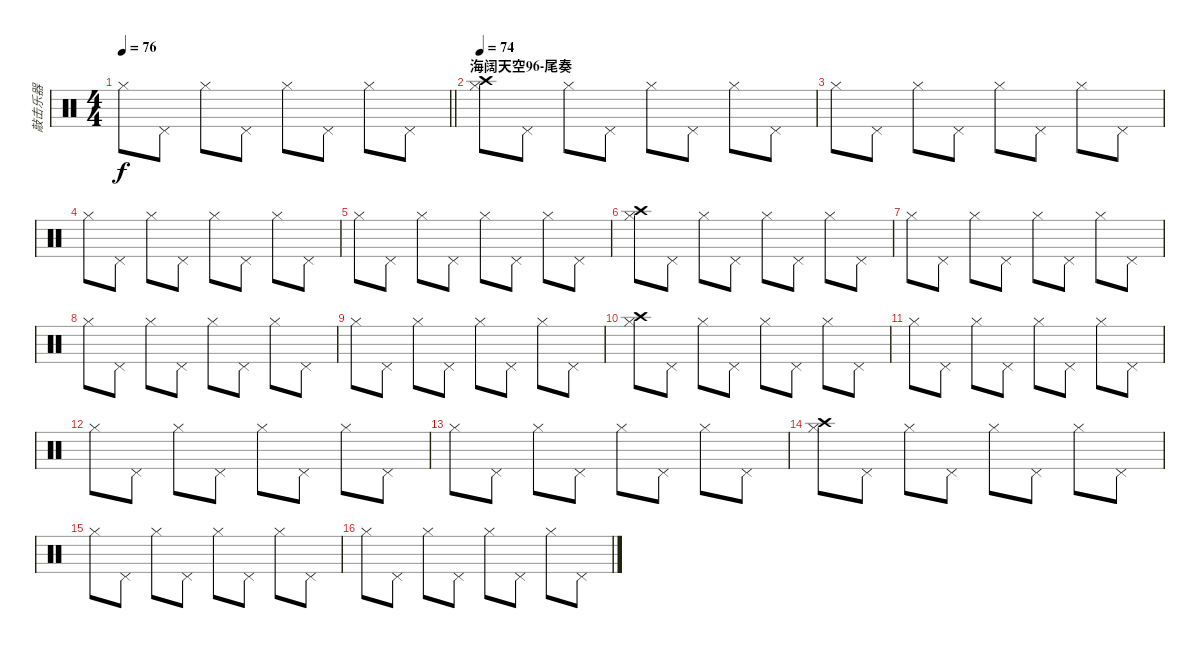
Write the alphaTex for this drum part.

\track ("敲击乐器" "敲击乐器") {instrument percussion}
\staff {score}
\articulation defaults
\ts (4 4)
\tempo 76
\clef neutral
\barLineRight lightlight
\ks c "Hi-Hat (closed)".8{dy f} "Pedal Hi-Hat (hit)".8 "Hi-Hat (closed)".8 "Pedal Hi-Hat (hit)".8 "Hi-Hat (closed)".8 "Pedal Hi-Hat (hit)".8 "Hi-Hat (closed)".8 "Pedal Hi-Hat (hit)".8
|
\section ("" "海阔天空96-尾奏")
\tempo 74
("Hi-Hat (closed)" "Crash high (hit)").8 "Pedal Hi-Hat (hit)".8 "Hi-Hat (closed)".8 "Pedal Hi-Hat (hit)".8 "Hi-Hat (closed)".8 "Pedal Hi-Hat (hit)".8 "Hi-Hat (closed)".8 "Pedal Hi-Hat (hit)".8 |
"Hi-Hat (closed)".8 "Pedal Hi-Hat (hit)".8 "Hi-Hat (closed)".8 "Pedal Hi-Hat (hit)".8 "Hi-Hat (closed)".8 "Pedal Hi-Hat (hit)".8 "Hi-Hat (closed)".8 "Pedal Hi-Hat (hit)".8 |
"Hi-Hat (closed)".8 "Pedal Hi-Hat (hit)".8 "Hi-Hat (closed)".8 "Pedal Hi-Hat (hit)".8 "Hi-Hat (closed)".8 "Pedal Hi-Hat (hit)".8 "Hi-Hat (closed)".8 "Pedal Hi-Hat (hit)".8 |
"Hi-Hat (closed)".8 "Pedal Hi-Hat (hit)".8 "Hi-Hat (closed)".8 "Pedal Hi-Hat (hit)".8 "Hi-Hat (closed)".8 "Pedal Hi-Hat (hit)".8 "Hi-Hat (closed)".8 "Pedal Hi-Hat (hit)".8 |
("Hi-Hat (closed)" "Crash high (hit)").8 "Pedal Hi-Hat (hit)".8 "Hi-Hat (closed)".8 "Pedal Hi-Hat (hit)".8 "Hi-Hat (closed)".8 "Pedal Hi-Hat (hit)".8 "Hi-Hat (closed)".8 "Pedal Hi-Hat (hit)".8 |
"Hi-Hat (closed)".8 "Pedal Hi-Hat (hit)".8 "Hi-Hat (closed)".8 "Pedal Hi-Hat (hit)".8 "Hi-Hat (closed)".8 "Pedal Hi-Hat (hit)".8 "Hi-Hat (closed)".8 "Pedal Hi-Hat (hit)".8 |
"Hi-Hat (closed)".8 "Pedal Hi-Hat (hit)".8 "Hi-Hat (closed)".8 "Pedal Hi-Hat (hit)".8 "Hi-Hat (closed)".8 "Pedal Hi-Hat (hit)".8 "Hi-Hat (closed)".8 "Pedal Hi-Hat (hit)".8 |
"Hi-Hat (closed)".8 "Pedal Hi-Hat (hit)".8 "Hi-Hat (closed)".8 "Pedal Hi-Hat (hit)".8 "Hi-Hat (closed)".8 "Pedal Hi-Hat (hit)".8 "Hi-Hat (closed)".8 "Pedal Hi-Hat (hit)".8 |
("Hi-Hat (closed)" "Crash high (hit)").8 "Pedal Hi-Hat (hit)".8 "Hi-Hat (closed)".8 "Pedal Hi-Hat (hit)".8 "Hi-Hat (closed)".8 "Pedal Hi-Hat (hit)".8 "Hi-Hat (closed)".8 "Pedal Hi-Hat (hit)".8 |
"Hi-Hat (closed)".8 "Pedal Hi-Hat (hit)".8 "Hi-Hat (closed)".8 "Pedal Hi-Hat (hit)".8 "Hi-Hat (closed)".8 "Pedal Hi-Hat (hit)".8 "Hi-Hat (closed)".8 "Pedal Hi-Hat (hit)".8 |
"Hi-Hat (closed)".8 "Pedal Hi-Hat (hit)".8 "Hi-Hat (closed)".8 "Pedal Hi-Hat (hit)".8 "Hi-Hat (closed)".8 "Pedal Hi-Hat (hit)".8 "Hi-Hat (closed)".8 "Pedal Hi-Hat (hit)".8 |
"Hi-Hat (closed)".8 "Pedal Hi-Hat (hit)".8 "Hi-Hat (closed)".8 "Pedal Hi-Hat (hit)".8 "Hi-Hat (closed)".8 "Pedal Hi-Hat (hit)".8 "Hi-Hat (closed)".8 "Pedal Hi-Hat (hit)".8 |
("Hi-Hat (closed)" "Crash high (hit)").8 "Pedal Hi-Hat (hit)".8 "Hi-Hat (closed)".8 "Pedal Hi-Hat (hit)".8 "Hi-Hat (closed)".8 "Pedal Hi-Hat (hit)".8 "Hi-Hat (closed)".8 "Pedal Hi-Hat (hit)".8 |
"Hi-Hat (closed)".8 "Pedal Hi-Hat (hit)".8 "Hi-Hat (closed)".8 "Pedal Hi-Hat (hit)".8 "Hi-Hat (closed)".8 "Pedal Hi-Hat (hit)".8 "Hi-Hat (closed)".8 "Pedal Hi-Hat (hit)".8 |
"Hi-Hat (closed)".8 "Pedal Hi-Hat (hit)".8 "Hi-Hat (closed)".8 "Pedal Hi-Hat (hit)".8 "Hi-Hat (closed)".8 "Pedal Hi-Hat (hit)".8 "Hi-Hat (closed)".8 "Pedal Hi-Hat (hit)".8
